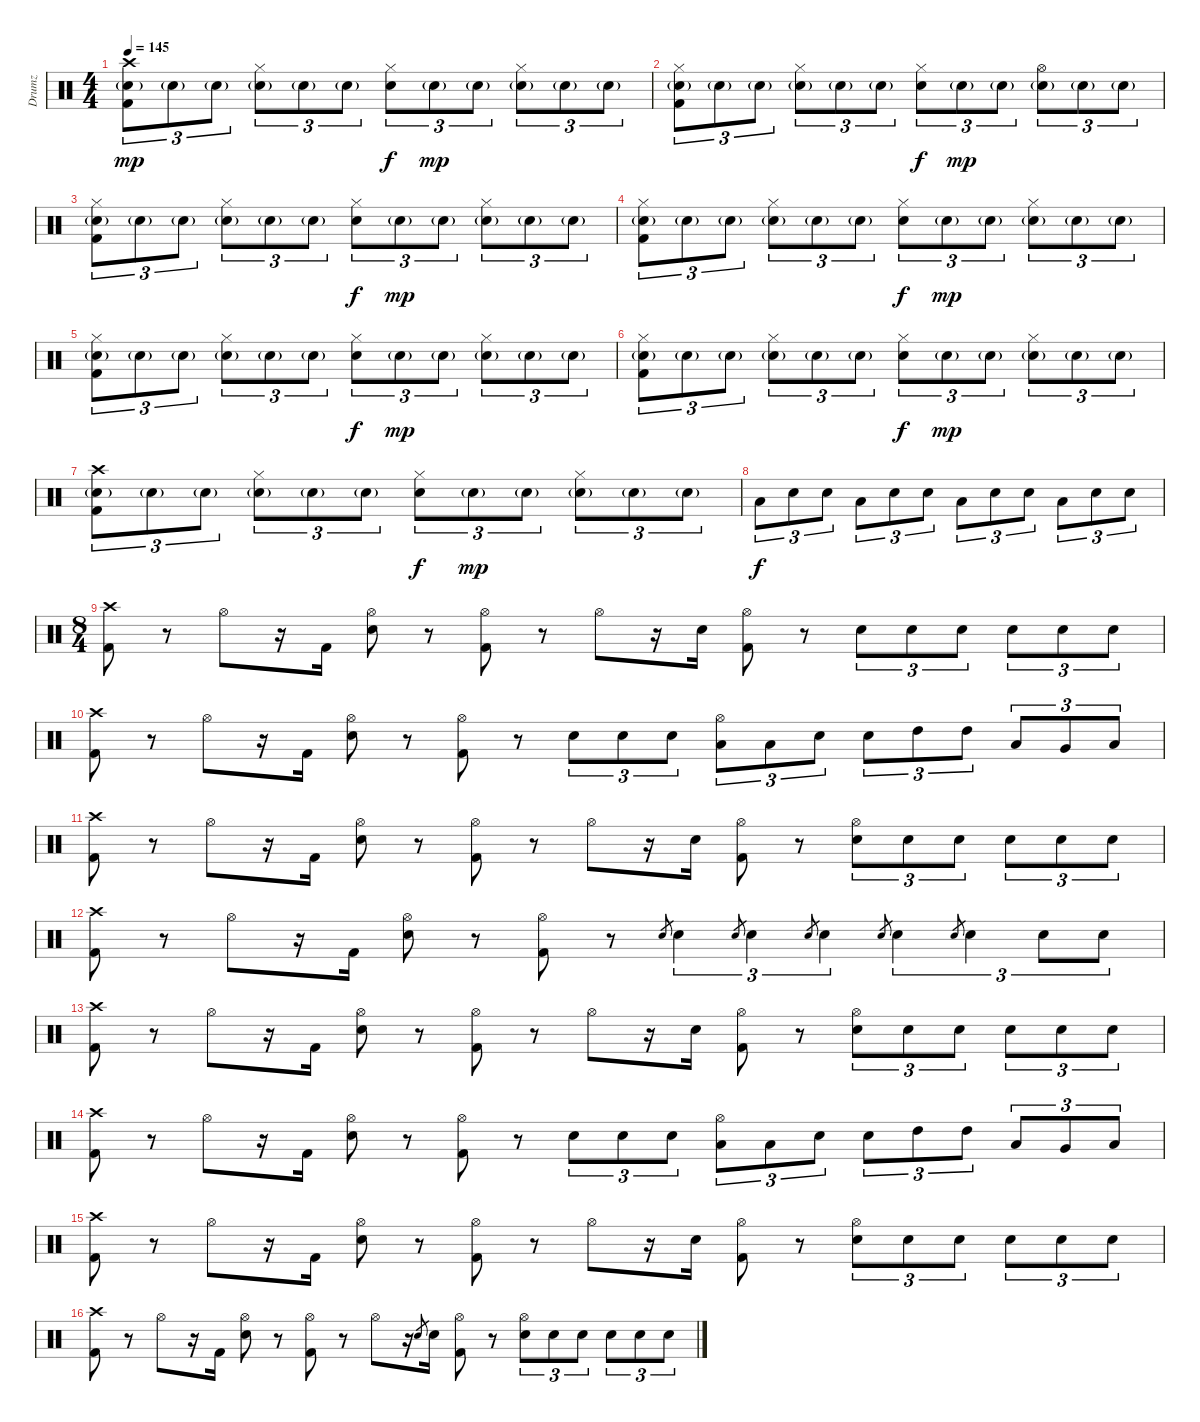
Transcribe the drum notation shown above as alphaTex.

\track ("Drumz" "Drumz") {instrument percussion}
\staff {score}
\articulation defaults
\ts (4 4)
\tempo 145
\clef neutral
\ks c
("Crash high (hit)" "Electric Snare (hit)"{g} "Kick (hit) 2").8{tu (3 2) dy mp} "Electric Snare (hit)"{g}.8{tu (3 2)} "Electric Snare (hit)"{g}.8{tu (3 2)} ("Hi-Hat (closed)" "Electric Snare (hit)"{g}).8{tu (3 2)} "Electric Snare (hit)"{g}.8{tu (3 2)} "Electric Snare (hit)"{g}.8{tu (3 2)} ("Hi-Hat (closed)" "Electric Snare (hit)").8{tu (3 2) dy f} "Electric Snare (hit)"{g}.8{tu (3 2) dy mp} "Electric Snare (hit)"{g}.8{tu (3 2)} ("Hi-Hat (closed)" "Electric Snare (hit)"{g}).8{tu (3 2)} "Electric Snare (hit)"{g}.8{tu (3 2)} "Electric Snare (hit)"{g}.8{tu (3 2)} |
("Hi-Hat (closed)" "Electric Snare (hit)"{g} "Kick (hit) 2").8{tu (3 2)} "Electric Snare (hit)"{g}.8{tu (3 2)} "Electric Snare (hit)"{g}.8{tu (3 2)} ("Hi-Hat (closed)" "Electric Snare (hit)"{g}).8{tu (3 2)} "Electric Snare (hit)"{g}.8{tu (3 2)} "Electric Snare (hit)"{g}.8{tu (3 2)} ("Hi-Hat (closed)" "Electric Snare (hit)").8{tu (3 2) dy f} "Electric Snare (hit)"{g}.8{tu (3 2) dy mp} "Electric Snare (hit)"{g}.8{tu (3 2)} ("Hi-Hat (open)" "Electric Snare (hit)"{g}).8{tu (3 2)} "Electric Snare (hit)"{g}.8{tu (3 2)} "Electric Snare (hit)"{g}.8{tu (3 2)} |
("Hi-Hat (closed)" "Electric Snare (hit)"{g} "Kick (hit) 2").8{tu (3 2)} "Electric Snare (hit)"{g}.8{tu (3 2)} "Electric Snare (hit)"{g}.8{tu (3 2)} ("Hi-Hat (closed)" "Electric Snare (hit)"{g}).8{tu (3 2)} "Electric Snare (hit)"{g}.8{tu (3 2)} "Electric Snare (hit)"{g}.8{tu (3 2)} ("Hi-Hat (closed)" "Electric Snare (hit)").8{tu (3 2) dy f} "Electric Snare (hit)"{g}.8{tu (3 2) dy mp} "Electric Snare (hit)"{g}.8{tu (3 2)} ("Hi-Hat (closed)" "Electric Snare (hit)"{g}).8{tu (3 2)} "Electric Snare (hit)"{g}.8{tu (3 2)} "Electric Snare (hit)"{g}.8{tu (3 2)} |
("Hi-Hat (closed)" "Electric Snare (hit)"{g} "Kick (hit) 2").8{tu (3 2)} "Electric Snare (hit)"{g}.8{tu (3 2)} "Electric Snare (hit)"{g}.8{tu (3 2)} ("Hi-Hat (closed)" "Electric Snare (hit)"{g}).8{tu (3 2)} "Electric Snare (hit)"{g}.8{tu (3 2)} "Electric Snare (hit)"{g}.8{tu (3 2)} ("Hi-Hat (closed)" "Electric Snare (hit)").8{tu (3 2) dy f} "Electric Snare (hit)"{g}.8{tu (3 2) dy mp} "Electric Snare (hit)"{g}.8{tu (3 2)} ("Hi-Hat (closed)" "Electric Snare (hit)"{g}).8{tu (3 2)} "Electric Snare (hit)"{g}.8{tu (3 2)} "Electric Snare (hit)"{g}.8{tu (3 2)} |
("Hi-Hat (closed)" "Electric Snare (hit)"{g} "Kick (hit) 2").8{tu (3 2)} "Electric Snare (hit)"{g}.8{tu (3 2)} "Electric Snare (hit)"{g}.8{tu (3 2)} ("Hi-Hat (closed)" "Electric Snare (hit)"{g}).8{tu (3 2)} "Electric Snare (hit)"{g}.8{tu (3 2)} "Electric Snare (hit)"{g}.8{tu (3 2)} ("Hi-Hat (closed)" "Electric Snare (hit)").8{tu (3 2) dy f} "Electric Snare (hit)"{g}.8{tu (3 2) dy mp} "Electric Snare (hit)"{g}.8{tu (3 2)} ("Hi-Hat (closed)" "Electric Snare (hit)"{g}).8{tu (3 2)} "Electric Snare (hit)"{g}.8{tu (3 2)} "Electric Snare (hit)"{g}.8{tu (3 2)} |
("Hi-Hat (closed)" "Electric Snare (hit)"{g} "Kick (hit) 2").8{tu (3 2)} "Electric Snare (hit)"{g}.8{tu (3 2)} "Electric Snare (hit)"{g}.8{tu (3 2)} ("Hi-Hat (closed)" "Electric Snare (hit)"{g}).8{tu (3 2)} "Electric Snare (hit)"{g}.8{tu (3 2)} "Electric Snare (hit)"{g}.8{tu (3 2)} ("Hi-Hat (closed)" "Electric Snare (hit)").8{tu (3 2) dy f} "Electric Snare (hit)"{g}.8{tu (3 2) dy mp} "Electric Snare (hit)"{g}.8{tu (3 2)} ("Hi-Hat (closed)" "Electric Snare (hit)"{g}).8{tu (3 2)} "Electric Snare (hit)"{g}.8{tu (3 2)} "Electric Snare (hit)"{g}.8{tu (3 2)} |
("Crash high (hit)" "Electric Snare (hit)"{g} "Kick (hit) 2").8{tu (3 2)} "Electric Snare (hit)"{g}.8{tu (3 2)} "Electric Snare (hit)"{g}.8{tu (3 2)} ("Hi-Hat (closed)" "Electric Snare (hit)"{g}).8{tu (3 2)} "Electric Snare (hit)"{g}.8{tu (3 2)} "Electric Snare (hit)"{g}.8{tu (3 2)} ("Hi-Hat (closed)" "Electric Snare (hit)").8{tu (3 2) dy f} "Electric Snare (hit)"{g}.8{tu (3 2) dy mp} "Electric Snare (hit)"{g}.8{tu (3 2)} ("Hi-Hat (closed)" "Electric Snare (hit)"{g}).8{tu (3 2)} "Electric Snare (hit)"{g}.8{tu (3 2)} "Electric Snare (hit)"{g}.8{tu (3 2)} |
"Low Floor Tom (hit)".8{tu (3 2) dy f} "Electric Snare (hit)".8{tu (3 2)} "Electric Snare (hit)".8{tu (3 2)} "Low Floor Tom (hit)".8{tu (3 2)} "Electric Snare (hit)".8{tu (3 2)} "Electric Snare (hit)".8{tu (3 2)} "Low Floor Tom (hit)".8{tu (3 2)} "Electric Snare (hit)".8{tu (3 2)} "Electric Snare (hit)".8{tu (3 2)} "Low Floor Tom (hit)".8{tu (3 2)} "Electric Snare (hit)".8{tu (3 2)} "Electric Snare (hit)".8{tu (3 2)} |
\ts (8 4)
("Crash high (hit)" "Kick (hit) 2").8 r.8 "Hi-Hat (open)".8 r.16 "Kick (hit) 2".16 ("Hi-Hat (open)" "Electric Snare (hit)").8 r.8 ("Hi-Hat (open)" "Kick (hit) 2").8 r.8 "Hi-Hat (open)".8 r.16 "Electric Snare (hit)".16 ("Hi-Hat (open)" "Kick (hit) 2").8 r.8 "Electric Snare (hit)".8{tu (3 2)} "Electric Snare (hit)".8{tu (3 2)} "Electric Snare (hit)".8{tu (3 2)} "Electric Snare (hit)".8{tu (3 2)} "Electric Snare (hit)".8{tu (3 2)} "Electric Snare (hit)".8{tu (3 2)} |
("Crash high (hit)" "Kick (hit) 2").8 r.8 "Hi-Hat (open)".8 r.16 "Kick (hit) 2".16 ("Hi-Hat (open)" "Electric Snare (hit)").8 r.8 ("Hi-Hat (open)" "Kick (hit) 2").8 r.8 "Electric Snare (hit)".8{tu (3 2)} "Electric Snare (hit)".8{tu (3 2)} "Electric Snare (hit)".8{tu (3 2)} ("Hi-Hat (open)" "Low Floor Tom (hit)").8{tu (3 2)} "Low Floor Tom (hit)".8{tu (3 2)} "Electric Snare (hit)".8{tu (3 2)} "Electric Snare (hit)".8{tu (3 2)} "High Tom (hit)".8{tu (3 2)} "High Tom (hit)".8{tu (3 2)} "Low Tom (hit)".8{tu (3 2)} "Very Low Tom (hit)".8{tu (3 2)} "Low Floor Tom (hit)".8{tu (3 2)} |
("Crash high (hit)" "Kick (hit) 2").8 r.8 "Hi-Hat (open)".8 r.16 "Kick (hit) 2".16 ("Hi-Hat (open)" "Electric Snare (hit)").8 r.8 ("Hi-Hat (open)" "Kick (hit) 2").8 r.8 "Hi-Hat (open)".8 r.16 "Electric Snare (hit)".16 ("Hi-Hat (open)" "Kick (hit) 2").8 r.8 ("Hi-Hat (open)" "Electric Snare (hit)").8{tu (3 2)} "Electric Snare (hit)".8{tu (3 2)} "Electric Snare (hit)".8{tu (3 2)} "Electric Snare (hit)".8{tu (3 2)} "Electric Snare (hit)".8{tu (3 2)} "Electric Snare (hit)".8{tu (3 2)} |
("Crash high (hit)" "Kick (hit) 2").8 r.8 "Hi-Hat (open)".8 r.16 "Kick (hit) 2".16 ("Hi-Hat (open)" "Electric Snare (hit)").8 r.8 ("Hi-Hat (open)" "Kick (hit) 2").8 r.8 "Electric Snare (hit)".8{gr} "Electric Snare (hit)".4{tu (3 2)} "Electric Snare (hit)".8{gr} "Electric Snare (hit)".4{tu (3 2)} "Electric Snare (hit)".8{gr} "Electric Snare (hit)".4{tu (3 2)} "Electric Snare (hit)".8{gr} "Electric Snare (hit)".4{tu (3 2)} "Electric Snare (hit)".8{gr} "Electric Snare (hit)".4{tu (3 2)} "Electric Snare (hit)".8{tu (3 2)} "Electric Snare (hit)".8{tu (3 2)} |
("Crash high (hit)" "Kick (hit) 2").8 r.8 "Hi-Hat (open)".8 r.16 "Kick (hit) 2".16 ("Hi-Hat (open)" "Electric Snare (hit)").8 r.8 ("Hi-Hat (open)" "Kick (hit) 2").8 r.8 "Hi-Hat (open)".8 r.16 "Electric Snare (hit)".16 ("Hi-Hat (open)" "Kick (hit) 2").8 r.8 ("Hi-Hat (open)" "Electric Snare (hit)").8{tu (3 2)} "Electric Snare (hit)".8{tu (3 2)} "Electric Snare (hit)".8{tu (3 2)} "Electric Snare (hit)".8{tu (3 2)} "Electric Snare (hit)".8{tu (3 2)} "Electric Snare (hit)".8{tu (3 2)} |
("Crash high (hit)" "Kick (hit) 2").8 r.8 "Hi-Hat (open)".8 r.16 "Kick (hit) 2".16 ("Hi-Hat (open)" "Electric Snare (hit)").8 r.8 ("Hi-Hat (open)" "Kick (hit) 2").8 r.8 "Electric Snare (hit)".8{tu (3 2)} "Electric Snare (hit)".8{tu (3 2)} "Electric Snare (hit)".8{tu (3 2)} ("Hi-Hat (open)" "Low Floor Tom (hit)").8{tu (3 2)} "Low Floor Tom (hit)".8{tu (3 2)} "Electric Snare (hit)".8{tu (3 2)} "Electric Snare (hit)".8{tu (3 2)} "High Tom (hit)".8{tu (3 2)} "High Tom (hit)".8{tu (3 2)} "Low Tom (hit)".8{tu (3 2)} "Very Low Tom (hit)".8{tu (3 2)} "Low Floor Tom (hit)".8{tu (3 2)} |
("Crash high (hit)" "Kick (hit) 2").8 r.8 "Hi-Hat (open)".8 r.16 "Kick (hit) 2".16 ("Hi-Hat (open)" "Electric Snare (hit)").8 r.8 ("Hi-Hat (open)" "Kick (hit) 2").8 r.8 "Hi-Hat (open)".8 r.16 "Electric Snare (hit)".16 ("Hi-Hat (open)" "Kick (hit) 2").8 r.8 ("Hi-Hat (open)" "Electric Snare (hit)").8{tu (3 2)} "Electric Snare (hit)".8{tu (3 2)} "Electric Snare (hit)".8{tu (3 2)} "Electric Snare (hit)".8{tu (3 2)} "Electric Snare (hit)".8{tu (3 2)} "Electric Snare (hit)".8{tu (3 2)} |
("Crash high (hit)" "Kick (hit) 2").8 r.8 "Hi-Hat (open)".8 r.16 "Kick (hit) 2".16 ("Hi-Hat (open)" "Electric Snare (hit)").8 r.8 ("Hi-Hat (open)" "Kick (hit) 2").8 r.8 "Hi-Hat (open)".8 r.16 "Electric Snare (hit)".8{gr} "Electric Snare (hit)".16 ("Hi-Hat (open)" "Kick (hit) 2").8 r.8 ("Hi-Hat (open)" "Electric Snare (hit)").8{tu (3 2)} "Electric Snare (hit)".8{tu (3 2)} "Electric Snare (hit)".8{tu (3 2)} "Electric Snare (hit)".8{tu (3 2)} "Electric Snare (hit)".8{tu (3 2)} "Electric Snare (hit)".8{tu (3 2)}
